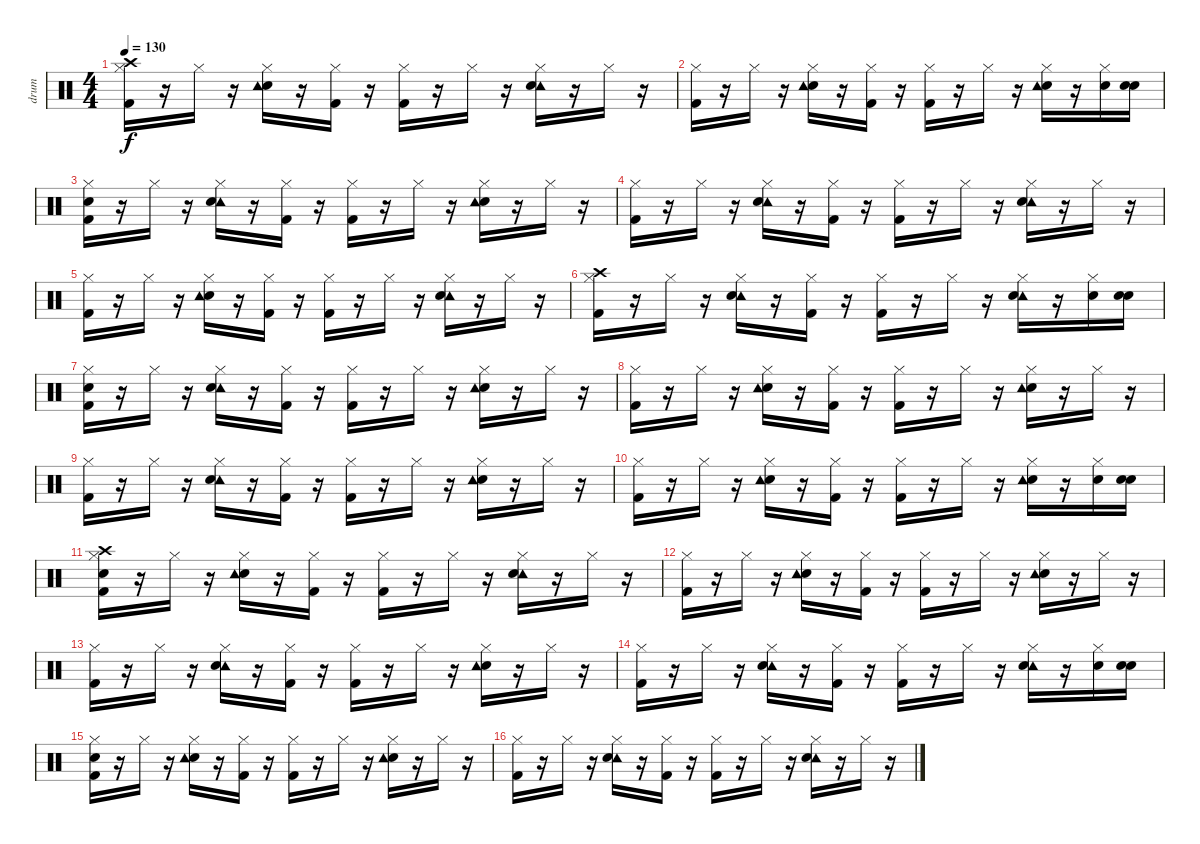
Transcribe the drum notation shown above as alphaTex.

\track ("drum" "drum") {instrument percussion}
\staff {score}
\articulation defaults
\ts (4 4)
\tempo 130
\clef neutral
\ks c
("Crash high (hit)" "Kick (hit) 2" "Hi-Hat (closed)").16{dy f} r.16 "Hi-Hat (closed)".16 r.16 ("Snare (hit) 2" "Hi-Hat (closed)" "Tambourine (hit)").16 r.16 ("Kick (hit) 2" "Hi-Hat (closed)").16 r.16 ("Hi-Hat (closed)" "Kick (hit) 2").16 r.16 "Hi-Hat (closed)".16 r.16 ("Hi-Hat (closed)" "Tambourine (hit)" "Snare (hit) 2").16 r.16 "Hi-Hat (closed)".16 r.16 |
("Kick (hit) 2" "Hi-Hat (closed)").16 r.16 "Hi-Hat (closed)".16 r.16 ("Snare (hit) 2" "Hi-Hat (closed)" "Tambourine (hit)").16 r.16 ("Kick (hit) 2" "Hi-Hat (closed)").16 r.16 ("Kick (hit) 2" "Hi-Hat (closed)").16 r.16 "Hi-Hat (closed)".16 r.16 ("Snare (hit) 2" "Hi-Hat (closed)" "Tambourine (hit)").16 r.16 ("Snare (hit) 2" "Hi-Hat (closed)").16 ("Snare (hit)" "Snare (hit) 2").16 |
("Snare (hit)" "Kick (hit) 2" "Hi-Hat (closed)").16 r.16 "Hi-Hat (closed)".16 r.16 ("Hi-Hat (closed)" "Tambourine (hit)" "Snare (hit) 2").16 r.16 ("Kick (hit) 2" "Hi-Hat (closed)").16 r.16 ("Kick (hit) 2" "Hi-Hat (closed)").16 r.16 "Hi-Hat (closed)".16 r.16 ("Hi-Hat (closed)" "Snare (hit) 2" "Tambourine (hit)").16 r.16 "Hi-Hat (closed)".16 r.16 |
("Hi-Hat (closed)" "Kick (hit) 2").16 r.16 "Hi-Hat (closed)".16 r.16 ("Tambourine (hit)" "Snare (hit) 2" "Hi-Hat (closed)").16 r.16 ("Kick (hit) 2" "Hi-Hat (closed)").16 r.16 ("Hi-Hat (closed)" "Kick (hit) 2").16 r.16 "Hi-Hat (closed)".16 r.16 ("Hi-Hat (closed)" "Tambourine (hit)" "Snare (hit) 2").16 r.16 "Hi-Hat (closed)".16 r.16 |
("Hi-Hat (closed)" "Kick (hit) 2").16 r.16 "Hi-Hat (closed)".16 r.16 ("Hi-Hat (closed)" "Snare (hit) 2" "Tambourine (hit)").16 r.16 ("Kick (hit) 2" "Hi-Hat (closed)").16 r.16 ("Kick (hit) 2" "Hi-Hat (closed)").16 r.16 "Hi-Hat (closed)".16 r.16 ("Hi-Hat (closed)" "Tambourine (hit)" "Snare (hit) 2").16 r.16 "Hi-Hat (closed)".16 r.16 |
("Crash high (hit)" "Kick (hit) 2" "Hi-Hat (closed)").16 r.16 "Hi-Hat (closed)".16 r.16 ("Hi-Hat (closed)" "Tambourine (hit)" "Snare (hit) 2").16 r.16 ("Hi-Hat (closed)" "Kick (hit) 2").16 r.16 ("Hi-Hat (closed)" "Kick (hit) 2").16 r.16 "Hi-Hat (closed)".16 r.16 ("Hi-Hat (closed)" "Tambourine (hit)" "Snare (hit) 2").16 r.16 ("Snare (hit) 2" "Hi-Hat (closed)").16 ("Snare (hit)" "Snare (hit) 2").16 |
("Snare (hit)" "Kick (hit) 2" "Hi-Hat (closed)").16 r.16 "Hi-Hat (closed)".16 r.16 ("Tambourine (hit)" "Hi-Hat (closed)" "Snare (hit) 2").16 r.16 ("Hi-Hat (closed)" "Kick (hit) 2").16 r.16 ("Kick (hit) 2" "Hi-Hat (closed)").16 r.16 "Hi-Hat (closed)".16 r.16 ("Hi-Hat (closed)" "Snare (hit) 2" "Tambourine (hit)").16 r.16 "Hi-Hat (closed)".16 r.16 |
("Kick (hit) 2" "Hi-Hat (closed)").16 r.16 "Hi-Hat (closed)".16 r.16 ("Snare (hit) 2" "Tambourine (hit)" "Hi-Hat (closed)").16 r.16 ("Hi-Hat (closed)" "Kick (hit) 2").16 r.16 ("Hi-Hat (closed)" "Kick (hit) 2").16 r.16 "Hi-Hat (closed)".16 r.16 ("Hi-Hat (closed)" "Snare (hit) 2" "Tambourine (hit)").16 r.16 "Hi-Hat (closed)".16 r.16 |
("Hi-Hat (closed)" "Kick (hit) 2").16 r.16 "Hi-Hat (closed)".16 r.16 ("Tambourine (hit)" "Snare (hit) 2" "Hi-Hat (closed)").16 r.16 ("Kick (hit) 2" "Hi-Hat (closed)").16 r.16 ("Hi-Hat (closed)" "Kick (hit) 2").16 r.16 "Hi-Hat (closed)".16 r.16 ("Snare (hit) 2" "Hi-Hat (closed)" "Tambourine (hit)").16 r.16 "Hi-Hat (closed)".16 r.16 |
("Hi-Hat (closed)" "Kick (hit) 2").16 r.16 "Hi-Hat (closed)".16 r.16 ("Hi-Hat (closed)" "Snare (hit) 2" "Tambourine (hit)").16 r.16 ("Kick (hit) 2" "Hi-Hat (closed)").16 r.16 ("Hi-Hat (closed)" "Kick (hit) 2").16 r.16 "Hi-Hat (closed)".16 r.16 ("Hi-Hat (closed)" "Snare (hit) 2" "Tambourine (hit)").16 r.16 ("Hi-Hat (closed)" "Snare (hit) 2").16 ("Snare (hit)" "Snare (hit) 2").16 |
("Snare (hit)" "Hi-Hat (closed)" "Crash high (hit)" "Kick (hit) 2").16 r.16 "Hi-Hat (closed)".16 r.16 ("Snare (hit) 2" "Tambourine (hit)" "Hi-Hat (closed)").16 r.16 ("Hi-Hat (closed)" "Kick (hit) 2").16 r.16 ("Kick (hit) 2" "Hi-Hat (closed)").16 r.16 "Hi-Hat (closed)".16 r.16 ("Tambourine (hit)" "Snare (hit) 2" "Hi-Hat (closed)").16 r.16 "Hi-Hat (closed)".16 r.16 |
("Hi-Hat (closed)" "Kick (hit) 2").16 r.16 "Hi-Hat (closed)".16 r.16 ("Snare (hit) 2" "Tambourine (hit)" "Hi-Hat (closed)").16 r.16 ("Kick (hit) 2" "Hi-Hat (closed)").16 r.16 ("Kick (hit) 2" "Hi-Hat (closed)").16 r.16 "Hi-Hat (closed)".16 r.16 ("Hi-Hat (closed)" "Snare (hit) 2" "Tambourine (hit)").16 r.16 "Hi-Hat (closed)".16 r.16 |
("Kick (hit) 2" "Hi-Hat (closed)").16 r.16 "Hi-Hat (closed)".16 r.16 ("Tambourine (hit)" "Hi-Hat (closed)" "Snare (hit) 2").16 r.16 ("Kick (hit) 2" "Hi-Hat (closed)").16 r.16 ("Hi-Hat (closed)" "Kick (hit) 2").16 r.16 "Hi-Hat (closed)".16 r.16 ("Snare (hit) 2" "Tambourine (hit)" "Hi-Hat (closed)").16 r.16 "Hi-Hat (closed)".16 r.16 |
("Kick (hit) 2" "Hi-Hat (closed)").16 r.16 "Hi-Hat (closed)".16 r.16 ("Tambourine (hit)" "Snare (hit) 2" "Hi-Hat (closed)").16 r.16 ("Kick (hit) 2" "Hi-Hat (closed)").16 r.16 ("Hi-Hat (closed)" "Kick (hit) 2").16 r.16 "Hi-Hat (closed)".16 r.16 ("Tambourine (hit)" "Hi-Hat (closed)" "Snare (hit) 2").16 r.16 ("Snare (hit) 2" "Hi-Hat (closed)").16 ("Snare (hit)" "Snare (hit) 2").16 |
("Snare (hit)" "Kick (hit) 2" "Hi-Hat (closed)").16 r.16 "Hi-Hat (closed)".16 r.16 ("Snare (hit) 2" "Hi-Hat (closed)" "Tambourine (hit)").16 r.16 ("Kick (hit) 2" "Hi-Hat (closed)").16 r.16 ("Kick (hit) 2" "Hi-Hat (closed)").16 r.16 "Hi-Hat (closed)".16 r.16 ("Hi-Hat (closed)" "Snare (hit) 2" "Tambourine (hit)").16 r.16 "Hi-Hat (closed)".16 r.16 |
("Kick (hit) 2" "Hi-Hat (closed)").16 r.16 "Hi-Hat (closed)".16 r.16 ("Tambourine (hit)" "Hi-Hat (closed)" "Snare (hit) 2").16 r.16 ("Hi-Hat (closed)" "Kick (hit) 2").16 r.16 ("Hi-Hat (closed)" "Kick (hit) 2").16 r.16 "Hi-Hat (closed)".16 r.16 ("Tambourine (hit)" "Snare (hit) 2" "Hi-Hat (closed)").16 r.16 "Hi-Hat (closed)".16 r.16
